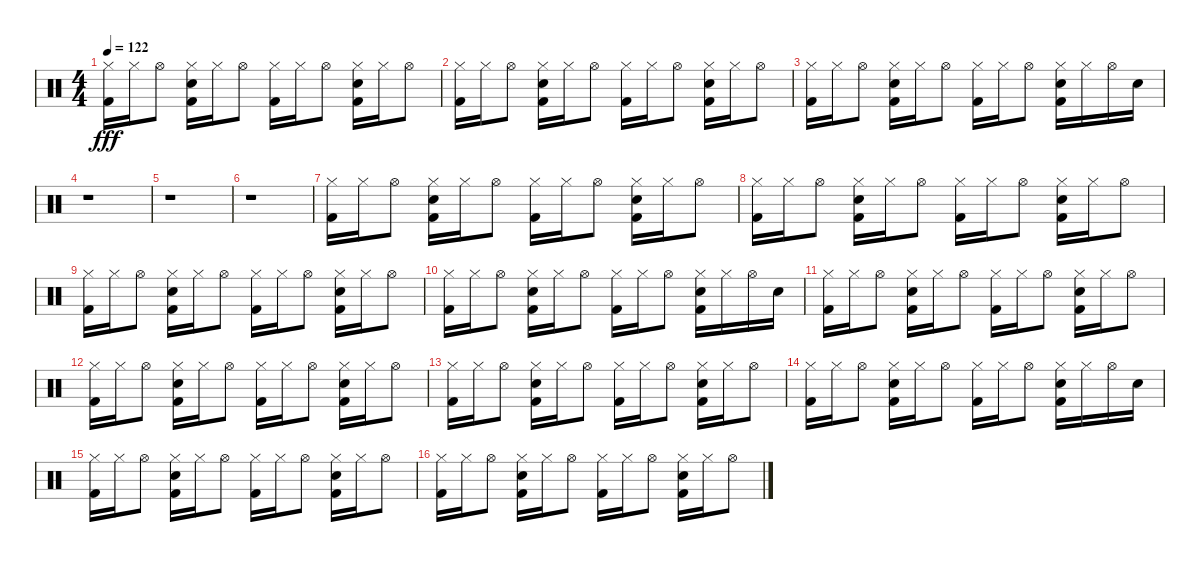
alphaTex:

\track "" {mute instrument percussion}
\staff {score}
\articulation defaults
\ts (4 4)
\tempo 122
\clef neutral
\ks c
("Kick (hit) 2" "Hi-Hat (closed)").16{dy fff} "Hi-Hat (closed)".16 "Hi-Hat (open)".8 ("Kick (hit) 2" "Snare (hit) 2" "Hi-Hat (closed)").16 "Hi-Hat (closed)".16 "Hi-Hat (open)".8 ("Kick (hit) 2" "Hi-Hat (closed)").16 "Hi-Hat (closed)".16 "Hi-Hat (open)".8 ("Kick (hit) 2" "Snare (hit) 2" "Hi-Hat (closed)").16 "Hi-Hat (closed)".16 "Hi-Hat (open)".8 |
("Kick (hit) 2" "Hi-Hat (closed)").16 "Hi-Hat (closed)".16 "Hi-Hat (open)".8 ("Kick (hit) 2" "Snare (hit) 2" "Hi-Hat (closed)").16 "Hi-Hat (closed)".16 "Hi-Hat (open)".8 ("Kick (hit) 2" "Hi-Hat (closed)").16 "Hi-Hat (closed)".16 "Hi-Hat (open)".8 ("Kick (hit) 2" "Snare (hit) 2" "Hi-Hat (closed)").16 "Hi-Hat (closed)".16 "Hi-Hat (open)".8 |
("Kick (hit) 2" "Hi-Hat (closed)").16 "Hi-Hat (closed)".16 "Hi-Hat (open)".8 ("Kick (hit) 2" "Snare (hit) 2" "Hi-Hat (closed)").16 "Hi-Hat (closed)".16 "Hi-Hat (open)".8 ("Kick (hit) 2" "Hi-Hat (closed)").16 "Hi-Hat (closed)".16 "Hi-Hat (open)".8 ("Kick (hit) 2" "Snare (hit) 2" "Hi-Hat (closed)").16 "Hi-Hat (closed)".16 "Hi-Hat (open)".16 "Snare (hit) 2".16 |
r.1 |
r.1 |
r.1 |
("Kick (hit) 2" "Hi-Hat (closed)").16 "Hi-Hat (closed)".16 "Hi-Hat (open)".8 ("Kick (hit) 2" "Snare (hit) 2" "Hi-Hat (closed)").16 "Hi-Hat (closed)".16 "Hi-Hat (open)".8 ("Kick (hit) 2" "Hi-Hat (closed)").16 "Hi-Hat (closed)".16 "Hi-Hat (open)".8 ("Kick (hit) 2" "Snare (hit) 2" "Hi-Hat (closed)").16 "Hi-Hat (closed)".16 "Hi-Hat (open)".8 |
("Kick (hit) 2" "Hi-Hat (closed)").16 "Hi-Hat (closed)".16 "Hi-Hat (open)".8 ("Kick (hit) 2" "Snare (hit) 2" "Hi-Hat (closed)").16 "Hi-Hat (closed)".16 "Hi-Hat (open)".8 ("Kick (hit) 2" "Hi-Hat (closed)").16 "Hi-Hat (closed)".16 "Hi-Hat (open)".8 ("Kick (hit) 2" "Snare (hit) 2" "Hi-Hat (closed)").16 "Hi-Hat (closed)".16 "Hi-Hat (open)".8 |
("Kick (hit) 2" "Hi-Hat (closed)").16 "Hi-Hat (closed)".16 "Hi-Hat (open)".8 ("Kick (hit) 2" "Snare (hit) 2" "Hi-Hat (closed)").16 "Hi-Hat (closed)".16 "Hi-Hat (open)".8 ("Kick (hit) 2" "Hi-Hat (closed)").16 "Hi-Hat (closed)".16 "Hi-Hat (open)".8 ("Kick (hit) 2" "Snare (hit) 2" "Hi-Hat (closed)").16 "Hi-Hat (closed)".16 "Hi-Hat (open)".8 |
("Kick (hit) 2" "Hi-Hat (closed)").16 "Hi-Hat (closed)".16 "Hi-Hat (open)".8 ("Kick (hit) 2" "Snare (hit) 2" "Hi-Hat (closed)").16 "Hi-Hat (closed)".16 "Hi-Hat (open)".8 ("Kick (hit) 2" "Hi-Hat (closed)").16 "Hi-Hat (closed)".16 "Hi-Hat (open)".8 ("Kick (hit) 2" "Snare (hit) 2" "Hi-Hat (closed)").16 "Hi-Hat (closed)".16 "Hi-Hat (open)".16 "Snare (hit) 2".16 |
("Kick (hit) 2" "Hi-Hat (closed)").16 "Hi-Hat (closed)".16 "Hi-Hat (open)".8 ("Kick (hit) 2" "Snare (hit) 2" "Hi-Hat (closed)").16 "Hi-Hat (closed)".16 "Hi-Hat (open)".8 ("Kick (hit) 2" "Hi-Hat (closed)").16 "Hi-Hat (closed)".16 "Hi-Hat (open)".8 ("Kick (hit) 2" "Snare (hit) 2" "Hi-Hat (closed)").16 "Hi-Hat (closed)".16 "Hi-Hat (open)".8 |
("Kick (hit) 2" "Hi-Hat (closed)").16 "Hi-Hat (closed)".16 "Hi-Hat (open)".8 ("Kick (hit) 2" "Snare (hit) 2" "Hi-Hat (closed)").16 "Hi-Hat (closed)".16 "Hi-Hat (open)".8 ("Kick (hit) 2" "Hi-Hat (closed)").16 "Hi-Hat (closed)".16 "Hi-Hat (open)".8 ("Kick (hit) 2" "Snare (hit) 2" "Hi-Hat (closed)").16 "Hi-Hat (closed)".16 "Hi-Hat (open)".8 |
("Kick (hit) 2" "Hi-Hat (closed)").16 "Hi-Hat (closed)".16 "Hi-Hat (open)".8 ("Kick (hit) 2" "Snare (hit) 2" "Hi-Hat (closed)").16 "Hi-Hat (closed)".16 "Hi-Hat (open)".8 ("Kick (hit) 2" "Hi-Hat (closed)").16 "Hi-Hat (closed)".16 "Hi-Hat (open)".8 ("Kick (hit) 2" "Snare (hit) 2" "Hi-Hat (closed)").16 "Hi-Hat (closed)".16 "Hi-Hat (open)".8 |
("Kick (hit) 2" "Hi-Hat (closed)").16 "Hi-Hat (closed)".16 "Hi-Hat (open)".8 ("Kick (hit) 2" "Snare (hit) 2" "Hi-Hat (closed)").16 "Hi-Hat (closed)".16 "Hi-Hat (open)".8 ("Kick (hit) 2" "Hi-Hat (closed)").16 "Hi-Hat (closed)".16 "Hi-Hat (open)".8 ("Kick (hit) 2" "Snare (hit) 2" "Hi-Hat (closed)").16 "Hi-Hat (closed)".16 "Hi-Hat (open)".16 "Snare (hit) 2".16 |
("Kick (hit) 2" "Hi-Hat (closed)").16 "Hi-Hat (closed)".16 "Hi-Hat (open)".8 ("Kick (hit) 2" "Snare (hit) 2" "Hi-Hat (closed)").16 "Hi-Hat (closed)".16 "Hi-Hat (open)".8 ("Kick (hit) 2" "Hi-Hat (closed)").16 "Hi-Hat (closed)".16 "Hi-Hat (open)".8 ("Kick (hit) 2" "Snare (hit) 2" "Hi-Hat (closed)").16 "Hi-Hat (closed)".16 "Hi-Hat (open)".8 |
("Kick (hit) 2" "Hi-Hat (closed)").16 "Hi-Hat (closed)".16 "Hi-Hat (open)".8 ("Kick (hit) 2" "Snare (hit) 2" "Hi-Hat (closed)").16 "Hi-Hat (closed)".16 "Hi-Hat (open)".8 ("Kick (hit) 2" "Hi-Hat (closed)").16 "Hi-Hat (closed)".16 "Hi-Hat (open)".8 ("Kick (hit) 2" "Snare (hit) 2" "Hi-Hat (closed)").16 "Hi-Hat (closed)".16 "Hi-Hat (open)".8
